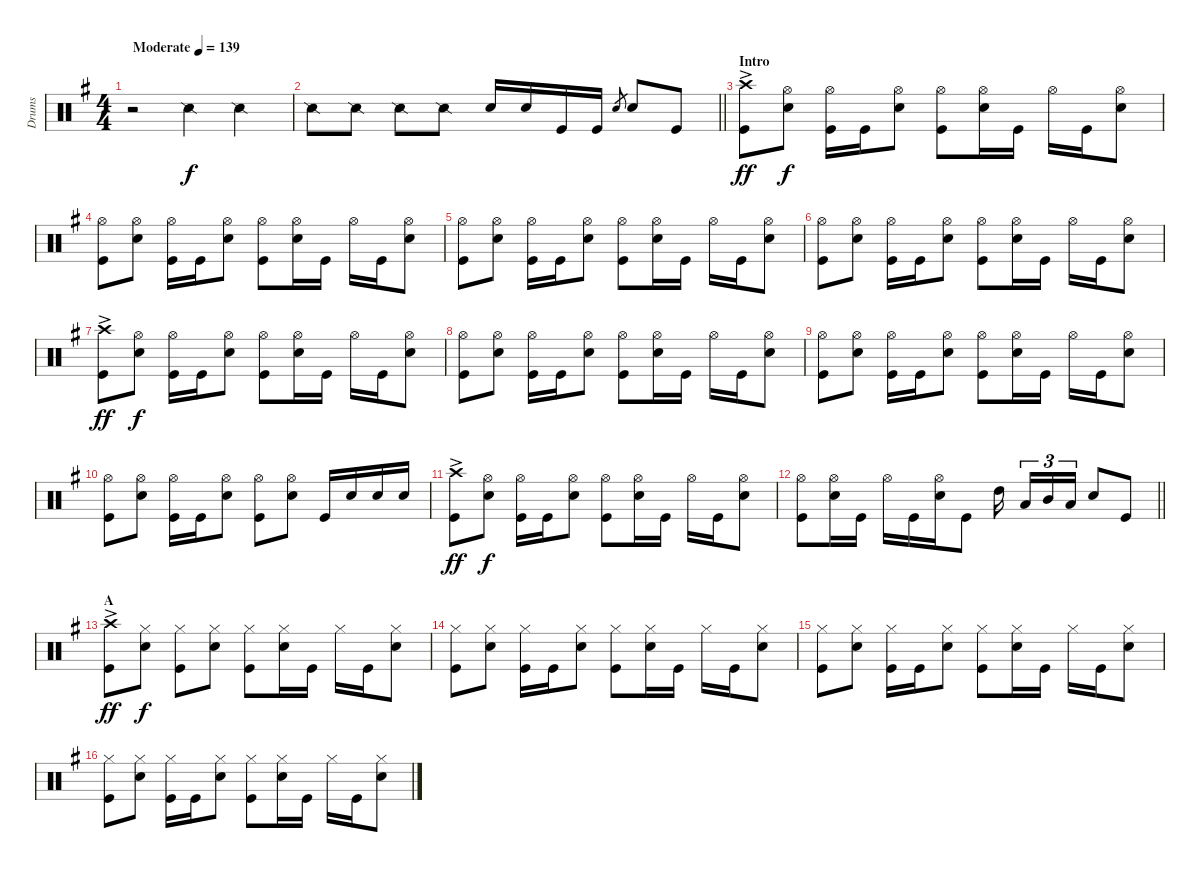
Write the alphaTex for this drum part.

\track ("Drums" "Drums") {instrument percussion}
\staff {score}
\articulation defaults
\ts (4 4)
\tempo (139 "Moderate")
\clef neutral
\ks g
r.2{dy f} "Snare (side stick) 2".4 "Snare (side stick) 2".4 |
\barLineRight lightlight "Snare (side stick) 2".8 "Snare (side stick) 2".8 "Snare (side stick) 2".8 "Snare (side stick) 2".8 "Snare (hit) 2".16 "Snare (hit) 2".16 "Kick (hit)".16 "Kick (hit)".16 "Snare (hit) 2".8{gr} "Snare (hit) 2".8 "Kick (hit)".8
|
\section ("" "Intro")
("Crash high (hit)"{ac} "Kick (hit)").8{dy ff} ("Hi-Hat (open)" "Snare (hit) 2").8{dy f} ("Hi-Hat (open)" "Kick (hit)").16 "Kick (hit)".16 ("Hi-Hat (open)" "Snare (hit) 2").8 ("Hi-Hat (open)" "Kick (hit)").8 ("Hi-Hat (open)" "Snare (hit) 2").16 "Kick (hit)".16 "Hi-Hat (open)".16 "Kick (hit)".16 ("Hi-Hat (open)" "Snare (hit) 2").8 |
("Hi-Hat (open)" "Kick (hit)").8 ("Hi-Hat (open)" "Snare (hit) 2").8 ("Hi-Hat (open)" "Kick (hit)").16 "Kick (hit)".16 ("Hi-Hat (open)" "Snare (hit) 2").8 ("Hi-Hat (open)" "Kick (hit)").8 ("Hi-Hat (open)" "Snare (hit) 2").16 "Kick (hit)".16 "Hi-Hat (open)".16 "Kick (hit)".16 ("Hi-Hat (open)" "Snare (hit) 2").8 |
("Hi-Hat (open)" "Kick (hit)").8 ("Hi-Hat (open)" "Snare (hit) 2").8 ("Hi-Hat (open)" "Kick (hit)").16 "Kick (hit)".16 ("Hi-Hat (open)" "Snare (hit) 2").8 ("Hi-Hat (open)" "Kick (hit)").8 ("Hi-Hat (open)" "Snare (hit) 2").16 "Kick (hit)".16 "Hi-Hat (open)".16 "Kick (hit)".16 ("Hi-Hat (open)" "Snare (hit) 2").8 |
("Hi-Hat (open)" "Kick (hit)").8 ("Hi-Hat (open)" "Snare (hit) 2").8 ("Hi-Hat (open)" "Kick (hit)").16 "Kick (hit)".16 ("Hi-Hat (open)" "Snare (hit) 2").8 ("Hi-Hat (open)" "Kick (hit)").8 ("Hi-Hat (open)" "Snare (hit) 2").16 "Kick (hit)".16 "Hi-Hat (open)".16 "Kick (hit)".16 ("Hi-Hat (open)" "Snare (hit) 2").8 |
("Crash high (hit)"{ac} "Kick (hit)").8{dy ff} ("Hi-Hat (open)" "Snare (hit) 2").8{dy f} ("Hi-Hat (open)" "Kick (hit)").16 "Kick (hit)".16 ("Hi-Hat (open)" "Snare (hit) 2").8 ("Hi-Hat (open)" "Kick (hit)").8 ("Hi-Hat (open)" "Snare (hit) 2").16 "Kick (hit)".16 "Hi-Hat (open)".16 "Kick (hit)".16 ("Hi-Hat (open)" "Snare (hit) 2").8 |
("Hi-Hat (open)" "Kick (hit)").8 ("Hi-Hat (open)" "Snare (hit) 2").8 ("Hi-Hat (open)" "Kick (hit)").16 "Kick (hit)".16 ("Hi-Hat (open)" "Snare (hit) 2").8 ("Hi-Hat (open)" "Kick (hit)").8 ("Hi-Hat (open)" "Snare (hit) 2").16 "Kick (hit)".16 "Hi-Hat (open)".16 "Kick (hit)".16 ("Hi-Hat (open)" "Snare (hit) 2").8 |
("Hi-Hat (open)" "Kick (hit)").8 ("Hi-Hat (open)" "Snare (hit) 2").8 ("Hi-Hat (open)" "Kick (hit)").16 "Kick (hit)".16 ("Hi-Hat (open)" "Snare (hit) 2").8 ("Hi-Hat (open)" "Kick (hit)").8 ("Hi-Hat (open)" "Snare (hit) 2").16 "Kick (hit)".16 "Hi-Hat (open)".16 "Kick (hit)".16 ("Hi-Hat (open)" "Snare (hit) 2").8 |
("Hi-Hat (open)" "Kick (hit)").8 ("Hi-Hat (open)" "Snare (hit) 2").8 ("Hi-Hat (open)" "Kick (hit)").16 "Kick (hit)".16 ("Hi-Hat (open)" "Snare (hit) 2").8 ("Hi-Hat (open)" "Kick (hit)").8 ("Hi-Hat (open)" "Snare (hit) 2").8 "Kick (hit)".16 "Snare (hit) 2".16 "Snare (hit) 2".16 "Snare (hit) 2".16 |
("Crash high (hit)"{ac} "Kick (hit)").8{dy ff} ("Hi-Hat (open)" "Snare (hit) 2").8{dy f} ("Hi-Hat (open)" "Kick (hit)").16 "Kick (hit)".16 ("Hi-Hat (open)" "Snare (hit) 2").8 ("Hi-Hat (open)" "Kick (hit)").8 ("Hi-Hat (open)" "Snare (hit) 2").16 "Kick (hit)".16 "Hi-Hat (open)".16 "Kick (hit)".16 ("Hi-Hat (open)" "Snare (hit) 2").8 |
\barLineRight lightlight
("Hi-Hat (open)" "Kick (hit)").8 ("Hi-Hat (open)" "Snare (hit) 2").16 "Kick (hit)".16 "Hi-Hat (open)".16 "Kick (hit)".16 ("Hi-Hat (open)" "Snare (hit) 2").16 "Kick (hit)".8 "High Tom (hit)".16{beam splitsecondary} "Low Tom (hit)".16{tu (3 2)} "Mid Tom (hit)".16{tu (3 2)} "Low Tom (hit)".16{tu (3 2)} "Snare (hit) 2".8 "Kick (hit)".8 |
\section ("" "A")
("Crash high (hit)"{ac} "Kick (hit)").8{dy ff} ("Hi-Hat (closed)" "Snare (hit) 2").8{dy f} ("Hi-Hat (closed)" "Kick (hit)").8 ("Hi-Hat (closed)" "Snare (hit) 2").8 ("Hi-Hat (closed)" "Kick (hit)").8 ("Hi-Hat (closed)" "Snare (hit) 2").16 "Kick (hit)".16 "Hi-Hat (closed)".16 "Kick (hit)".16 ("Hi-Hat (closed)" "Snare (hit) 2").8 |
("Hi-Hat (closed)" "Kick (hit)").8 ("Hi-Hat (closed)" "Snare (hit) 2").8 ("Hi-Hat (closed)" "Kick (hit)").16 "Kick (hit)".16 ("Hi-Hat (closed)" "Snare (hit) 2").8 ("Hi-Hat (closed)" "Kick (hit)").8 ("Hi-Hat (closed)" "Snare (hit) 2").16 "Kick (hit)".16 "Hi-Hat (closed)".16 "Kick (hit)".16 ("Hi-Hat (closed)" "Snare (hit) 2").8 |
("Hi-Hat (closed)" "Kick (hit)").8 ("Hi-Hat (closed)" "Snare (hit) 2").8 ("Hi-Hat (closed)" "Kick (hit)").16 "Kick (hit)".16 ("Hi-Hat (closed)" "Snare (hit) 2").8 ("Hi-Hat (closed)" "Kick (hit)").8 ("Hi-Hat (closed)" "Snare (hit) 2").16 "Kick (hit)".16 "Hi-Hat (closed)".16 "Kick (hit)".16 ("Hi-Hat (closed)" "Snare (hit) 2").8 |
("Hi-Hat (closed)" "Kick (hit)").8 ("Hi-Hat (closed)" "Snare (hit) 2").8 ("Hi-Hat (closed)" "Kick (hit)").16 "Kick (hit)".16 ("Hi-Hat (closed)" "Snare (hit) 2").8 ("Hi-Hat (closed)" "Kick (hit)").8 ("Hi-Hat (closed)" "Snare (hit) 2").16 "Kick (hit)".16 "Hi-Hat (closed)".16 "Kick (hit)".16 ("Hi-Hat (closed)" "Snare (hit) 2").8
